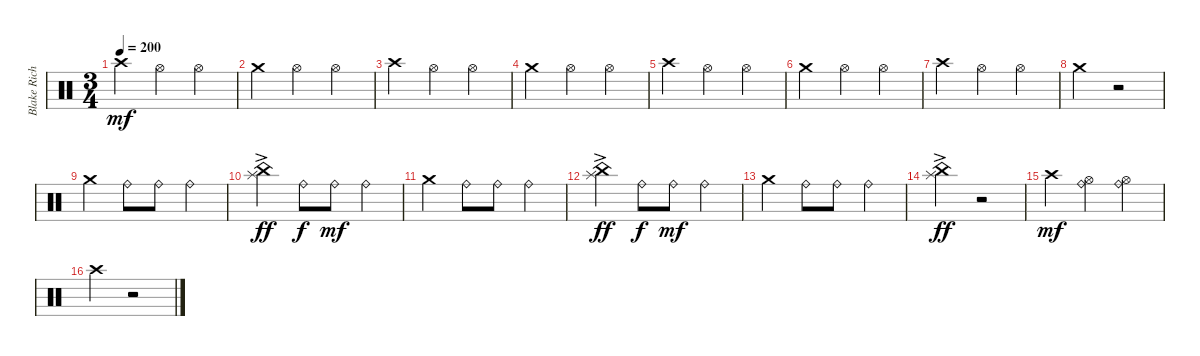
\track ("Blake Richardson Drums" "Blake Rich") {instrument percussion}
\staff {score}
\articulation defaults
\ts (3 4)
\tempo 200
\clef neutral
\ks c "Crash high (hit)".4{dy mf} "Hi-Hat (open)".4 "Hi-Hat (open)".4
|
"Crash medium (hit)".4 "Hi-Hat (open)".4 "Hi-Hat (open)".4 |
"Crash high (hit)".4 "Hi-Hat (open)".4 "Hi-Hat (open)".4 |
"Crash medium (hit)".4 "Hi-Hat (open)".4 "Hi-Hat (open)".4 |
"Crash high (hit)".4 "Hi-Hat (open)".4 "Hi-Hat (open)".4 |
"Crash medium (hit)".4 "Hi-Hat (open)".4 "Hi-Hat (open)".4 |
"Crash high (hit)".4 "Hi-Hat (open)".4 "Hi-Hat (open)".4 |
"Crash medium (hit)".4 r.2 |
"Crash medium (hit)".4 "Ride (bell)".8 "Ride (bell)".8 "Ride (bell)".4 |
("China (hit)" "Splash (hit)"{ac}).4{dy ff} "Ride (bell)".8{dy f} "Ride (bell)".8{dy mf} "Ride (bell)".4 |
"Crash medium (hit)".4 "Ride (bell)".8 "Ride (bell)".8 "Ride (bell)".4 |
("China (hit)" "Splash (hit)"{ac}).4{dy ff} "Ride (bell)".8{dy f} "Ride (bell)".8{dy mf} "Ride (bell)".4 |
"Crash medium (hit)".4 "Ride (bell)".8 "Ride (bell)".8 "Ride (bell)".4 |
("China (hit)" "Splash (hit)"{ac}).4{dy ff} r.2 |
"Crash high (hit)".4{dy mf} ("Hi-Hat (open)" "Ride (bell)").4 ("Hi-Hat (open)" "Ride (bell)").4 |
"Crash high (hit)".4 r.2
